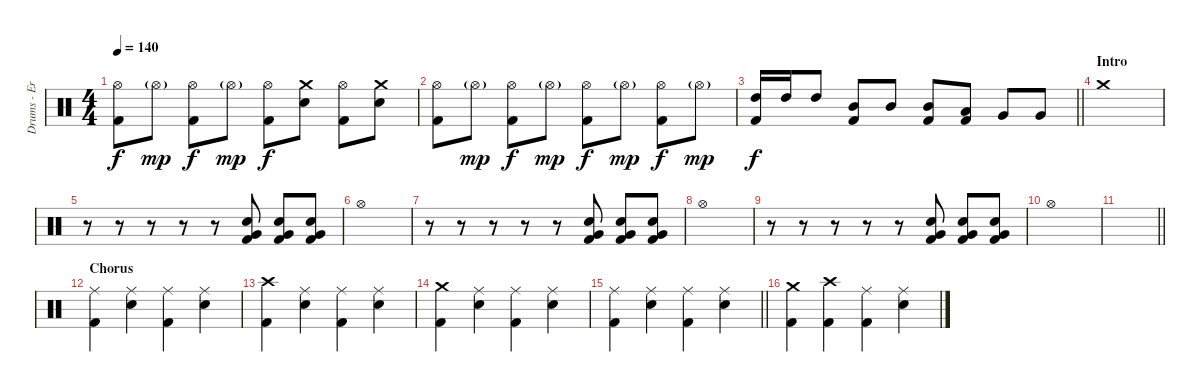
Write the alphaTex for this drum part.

\track ("Drums - Eric Young" "Drums - Er") {instrument percussion}
\staff {score}
\articulation defaults
\ts (4 4)
\tempo 140
\clef neutral
\ks c
("Hi-Hat (open)" "Kick (hit) 2").8{dy f} "Hi-Hat (open)"{g}.8{dy mp} ("Hi-Hat (open)" "Kick (hit) 2").8{dy f} "Hi-Hat (open)"{g}.8{dy mp} ("Hi-Hat (open)" "Kick (hit) 2").8{dy f} ("Crash medium (hit)" "Electric Snare (hit)").8 ("Hi-Hat (open)" "Kick (hit) 2").8 ("Crash medium (hit)" "Electric Snare (hit)").8 |
("Hi-Hat (open)" "Kick (hit) 2").8 "Hi-Hat (open)"{g}.8{dy mp} ("Hi-Hat (open)" "Kick (hit) 2").8{dy f} "Hi-Hat (open)"{g}.8{dy mp} ("Hi-Hat (open)" "Kick (hit) 2").8{dy f} "Hi-Hat (open)"{g}.8{dy mp} ("Hi-Hat (open)" "Kick (hit) 2").8{dy f} "Hi-Hat (open)"{g}.8{dy mp} |
\barLineRight lightlight
("High Tom (hit)" "Kick (hit) 2").16{dy f} "High Tom (hit)".16 "High Tom (hit)".8 ("Mid Tom (hit)" "Kick (hit) 2").8 "Mid Tom (hit)".8 ("Mid Tom (hit)" "Kick (hit) 2").8 ("Low Tom (hit)" "Kick (hit) 2").8 "Very Low Tom (hit)".8 "Very Low Tom (hit)".8 |
\section ("" "Intro")
"Crash medium (hit)".1 |
r.8 r.8 r.8 r.8 r.8 ("Electric Snare (hit)" "Very Low Tom (hit)" "Kick (hit) 2").8 ("Electric Snare (hit)" "Very Low Tom (hit)" "Kick (hit) 2").8 ("Electric Snare (hit)" "Very Low Tom (hit)" "Kick (hit) 2").8 |
"Hi-Hat (open)".1 |
r.8 r.8 r.8 r.8 r.8 ("Electric Snare (hit)" "Very Low Tom (hit)" "Kick (hit) 2").8 ("Electric Snare (hit)" "Very Low Tom (hit)" "Kick (hit) 2").8 ("Electric Snare (hit)" "Very Low Tom (hit)" "Kick (hit) 2").8 |
"Hi-Hat (open)".1 |
r.8 r.8 r.8 r.8 r.8 ("Electric Snare (hit)" "Very Low Tom (hit)" "Kick (hit) 2").8 ("Electric Snare (hit)" "Very Low Tom (hit)" "Kick (hit) 2").8 ("Electric Snare (hit)" "Very Low Tom (hit)" "Kick (hit) 2").8 |
"Hi-Hat (open)".1 |
\barLineRight lightlight
|
\section ("" "Chorus")
("Ride (middle)" "Kick (hit) 2").4 ("Ride (middle)" "Electric Snare (hit)").4 ("Ride (middle)" "Kick (hit) 2").4 ("Ride (middle)" "Electric Snare (hit)").4 |
("Crash high (hit)" "Kick (hit) 2").4 ("Ride (middle)" "Electric Snare (hit)").4 ("Ride (middle)" "Kick (hit) 2").4 ("Ride (middle)" "Electric Snare (hit)").4 |
("Crash medium (hit)" "Kick (hit) 2").4 ("Ride (middle)" "Electric Snare (hit)").4 ("Ride (middle)" "Kick (hit) 2").4 ("Ride (middle)" "Electric Snare (hit)").4 |
\barLineRight lightlight
("Ride (middle)" "Kick (hit) 2").4 ("Ride (middle)" "Electric Snare (hit)").4 ("Ride (middle)" "Kick (hit) 2").4 ("Ride (middle)" "Electric Snare (hit)").4 |
("Crash medium (hit)" "Kick (hit) 2").4 ("Crash high (hit)" "Kick (hit) 2").4 ("Ride (middle)" "Kick (hit) 2").4 ("Ride (middle)" "Electric Snare (hit)").4
